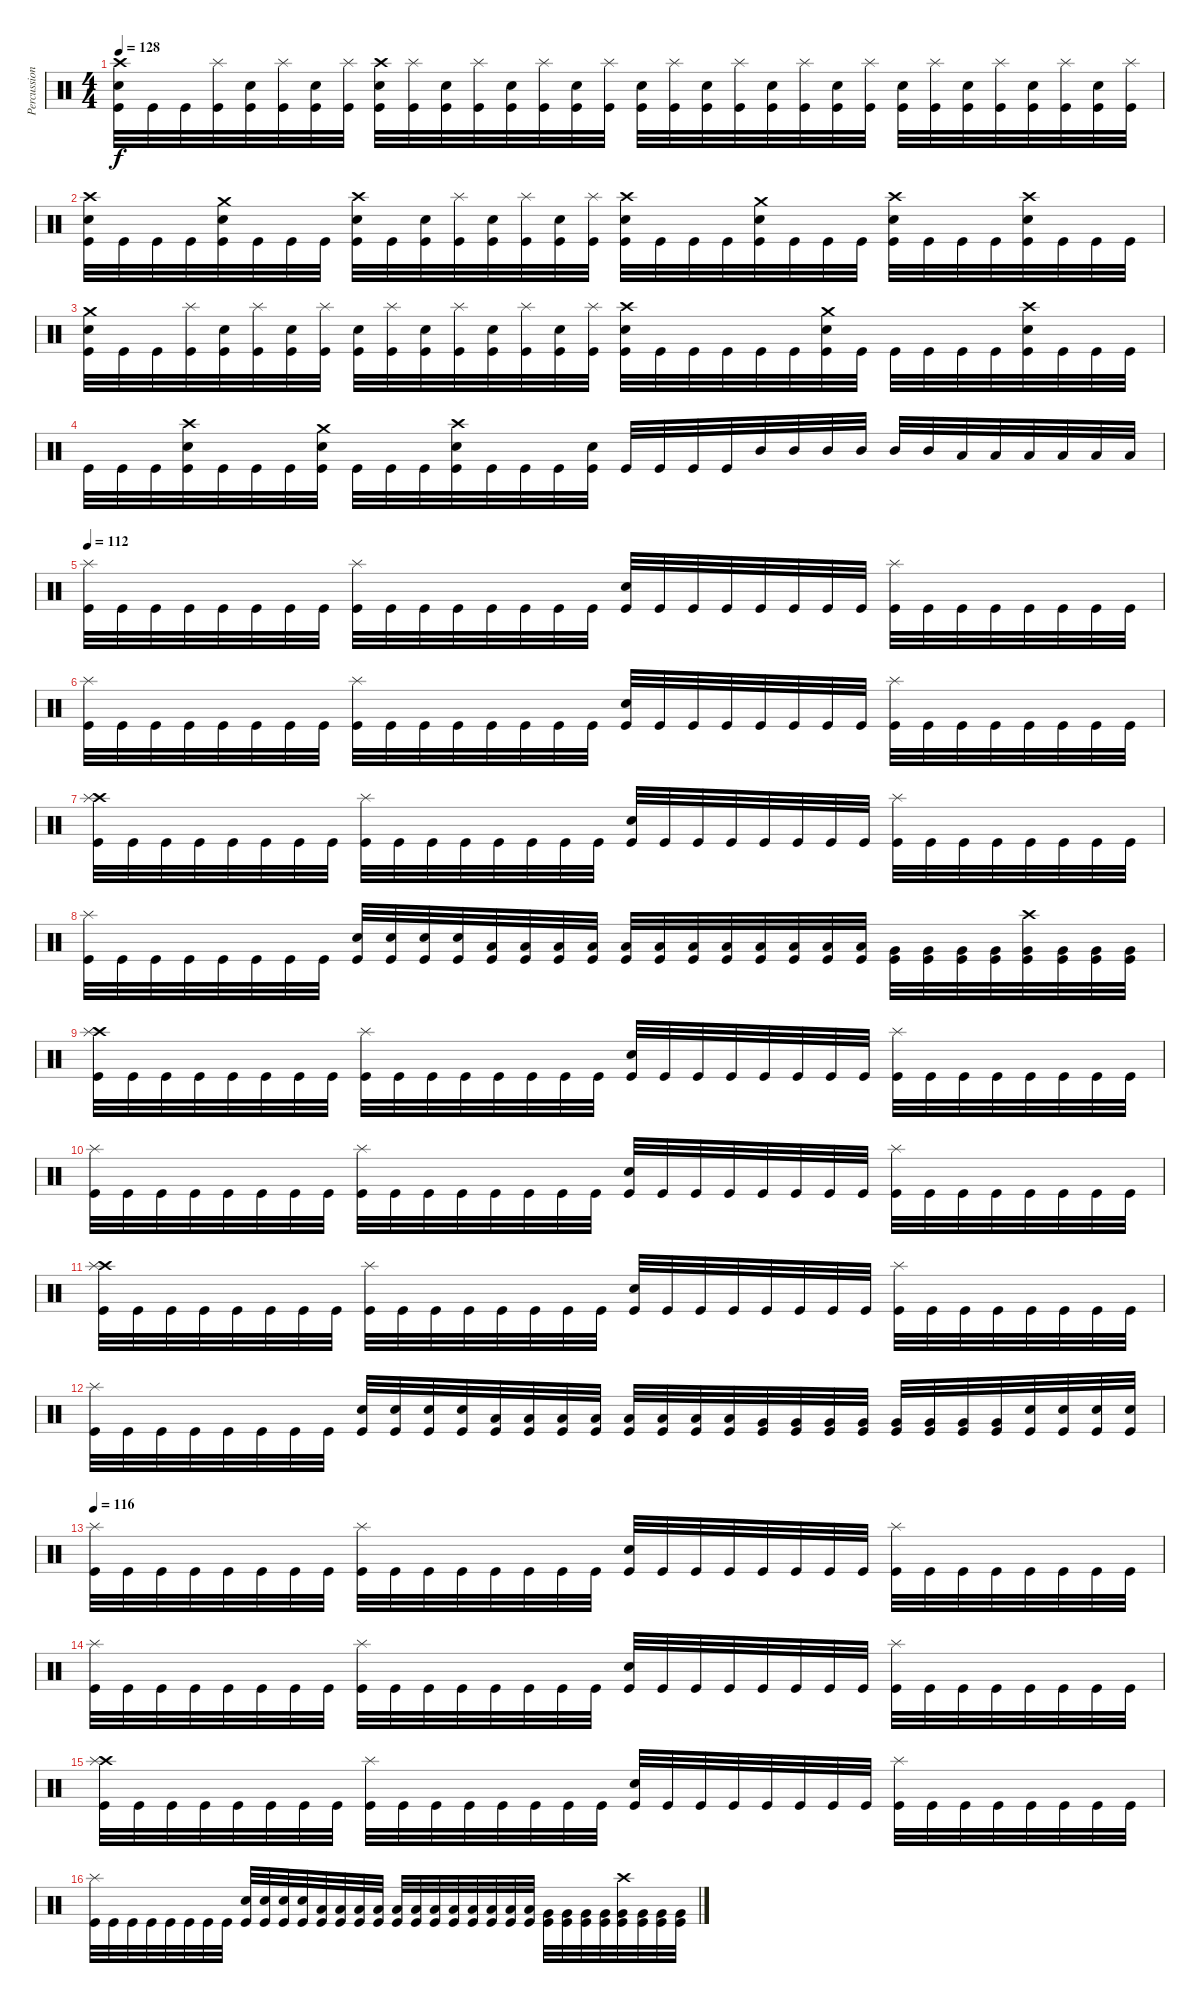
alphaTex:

\track ("Percussion" "Percussion") {instrument percussion}
\staff {score}
\articulation defaults
\ts (4 4)
\tempo 128
\clef neutral
\ks c
("Crash high (hit)" "Electric Snare (hit)" "Kick (hit)").32{dy f} "Kick (hit)".32 "Kick (hit)".32 ("Splash (hit)" "Kick (hit)").32 ("Electric Snare (hit)" "Kick (hit)").32 ("Splash (hit)" "Kick (hit)").32 ("Electric Snare (hit)" "Kick (hit)").32 ("Splash (hit)" "Kick (hit)").32 ("Crash high (hit)" "Electric Snare (hit)" "Kick (hit)").32 ("Splash (hit)" "Kick (hit)").32 ("Electric Snare (hit)" "Kick (hit)").32 ("Splash (hit)" "Kick (hit)").32 ("Electric Snare (hit)" "Kick (hit)").32 ("Splash (hit)" "Kick (hit)").32 ("Electric Snare (hit)" "Kick (hit)").32 ("Splash (hit)" "Kick (hit)").32 ("Electric Snare (hit)" "Kick (hit)").32 ("Splash (hit)" "Kick (hit)").32 ("Electric Snare (hit)" "Kick (hit)").32 ("Splash (hit)" "Kick (hit)").32 ("Electric Snare (hit)" "Kick (hit)").32 ("Splash (hit)" "Kick (hit)").32 ("Electric Snare (hit)" "Kick (hit)").32 ("Splash (hit)" "Kick (hit)").32 ("Electric Snare (hit)" "Kick (hit)").32 ("Splash (hit)" "Kick (hit)").32 ("Electric Snare (hit)" "Kick (hit)").32 ("Splash (hit)" "Kick (hit)").32 ("Electric Snare (hit)" "Kick (hit)").32 ("Splash (hit)" "Kick (hit)").32 ("Electric Snare (hit)" "Kick (hit)").32 ("Splash (hit)" "Kick (hit)").32 |
("Crash high (hit)" "Electric Snare (hit)" "Kick (hit)").32 "Kick (hit)".32 "Kick (hit)".32 "Kick (hit)".32 ("Crash medium (hit)" "Electric Snare (hit)" "Kick (hit)").32 "Kick (hit)".32 "Kick (hit)".32 "Kick (hit)".32 ("Crash high (hit)" "Electric Snare (hit)" "Kick (hit)").32 "Kick (hit)".32 ("Electric Snare (hit)" "Kick (hit)").32 ("Splash (hit)" "Kick (hit)").32 ("Electric Snare (hit)" "Kick (hit)").32 ("Splash (hit)" "Kick (hit)").32 ("Electric Snare (hit)" "Kick (hit)").32 ("Splash (hit)" "Kick (hit)").32 ("Crash high (hit)" "Electric Snare (hit)" "Kick (hit)").32 "Kick (hit)".32 "Kick (hit)".32 "Kick (hit)".32 ("Crash medium (hit)" "Electric Snare (hit)" "Kick (hit)").32 "Kick (hit)".32 "Kick (hit)".32 "Kick (hit)".32 ("Crash high (hit)" "Electric Snare (hit)" "Kick (hit)").32 "Kick (hit)".32 "Kick (hit)".32 "Kick (hit)".32 ("Crash high (hit)" "Electric Snare (hit)" "Kick (hit)").32 "Kick (hit)".32 "Kick (hit)".32 "Kick (hit)".32 |
("Crash medium (hit)" "Electric Snare (hit)" "Kick (hit)").32 "Kick (hit)".32 "Kick (hit)".32 ("Splash (hit)" "Kick (hit)").32 ("Electric Snare (hit)" "Kick (hit)").32 ("Splash (hit)" "Kick (hit)").32 ("Electric Snare (hit)" "Kick (hit)").32 ("Splash (hit)" "Kick (hit)").32 ("Electric Snare (hit)" "Kick (hit)").32 ("Splash (hit)" "Kick (hit)").32 ("Electric Snare (hit)" "Kick (hit)").32 ("Splash (hit)" "Kick (hit)").32 ("Electric Snare (hit)" "Kick (hit)").32 ("Splash (hit)" "Kick (hit)").32 ("Electric Snare (hit)" "Kick (hit)").32 ("Splash (hit)" "Kick (hit)").32 ("Crash high (hit)" "Electric Snare (hit)" "Kick (hit)").32 "Kick (hit)".32 "Kick (hit)".32 "Kick (hit)".32 "Kick (hit)".32 "Kick (hit)".32 ("Crash medium (hit)" "Electric Snare (hit)" "Kick (hit)").32 "Kick (hit)".32 "Kick (hit)".32 "Kick (hit)".32 "Kick (hit)".32 "Kick (hit)".32 ("Crash high (hit)" "Electric Snare (hit)" "Kick (hit)").32 "Kick (hit)".32 "Kick (hit)".32 "Kick (hit)".32 |
"Kick (hit)".32 "Kick (hit)".32 "Kick (hit)".32 ("Crash high (hit)" "Electric Snare (hit)" "Kick (hit)").32 "Kick (hit)".32 "Kick (hit)".32 "Kick (hit)".32 ("Crash medium (hit)" "Electric Snare (hit)" "Kick (hit)").32 "Kick (hit)".32 "Kick (hit)".32 "Kick (hit)".32 ("Crash high (hit)" "Electric Snare (hit)" "Kick (hit)").32 "Kick (hit)".32 "Kick (hit)".32 "Kick (hit)".32 ("Electric Snare (hit)" "Kick (hit)").32 "Kick (hit)".32 "Kick (hit)".32 "Kick (hit)".32 "Kick (hit)".32 "Mid Tom (hit)".32 "Mid Tom (hit)".32 "Mid Tom (hit)".32 "Mid Tom (hit)".32 "Mid Tom (hit)".32 "Mid Tom (hit)".32 "Low Tom (hit)".32 "Low Tom (hit)".32 "Low Tom (hit)".32 "Low Tom (hit)".32 "Low Tom (hit)".32 "Low Tom (hit)".32 |
\tempo 112
("Splash (hit)" "Kick (hit)").32 "Kick (hit)".32 "Kick (hit)".32 "Kick (hit)".32 "Kick (hit)".32 "Kick (hit)".32 "Kick (hit)".32 "Kick (hit)".32 ("Splash (hit)" "Kick (hit)").32 "Kick (hit)".32 "Kick (hit)".32 "Kick (hit)".32 "Kick (hit)".32 "Kick (hit)".32 "Kick (hit)".32 "Kick (hit)".32 ("Electric Snare (hit)" "Kick (hit)").32 "Kick (hit)".32 "Kick (hit)".32 "Kick (hit)".32 "Kick (hit)".32 "Kick (hit)".32 "Kick (hit)".32 "Kick (hit)".32 ("Splash (hit)" "Kick (hit)").32 "Kick (hit)".32 "Kick (hit)".32 "Kick (hit)".32 "Kick (hit)".32 "Kick (hit)".32 "Kick (hit)".32 "Kick (hit)".32 |
("Splash (hit)" "Kick (hit)").32 "Kick (hit)".32 "Kick (hit)".32 "Kick (hit)".32 "Kick (hit)".32 "Kick (hit)".32 "Kick (hit)".32 "Kick (hit)".32 ("Splash (hit)" "Kick (hit)").32 "Kick (hit)".32 "Kick (hit)".32 "Kick (hit)".32 "Kick (hit)".32 "Kick (hit)".32 "Kick (hit)".32 "Kick (hit)".32 ("Electric Snare (hit)" "Kick (hit)").32 "Kick (hit)".32 "Kick (hit)".32 "Kick (hit)".32 "Kick (hit)".32 "Kick (hit)".32 "Kick (hit)".32 "Kick (hit)".32 ("Splash (hit)" "Kick (hit)").32 "Kick (hit)".32 "Kick (hit)".32 "Kick (hit)".32 "Kick (hit)".32 "Kick (hit)".32 "Kick (hit)".32 "Kick (hit)".32 |
("Crash high (hit)" "Splash (hit)" "Kick (hit)").32 "Kick (hit)".32 "Kick (hit)".32 "Kick (hit)".32 "Kick (hit)".32 "Kick (hit)".32 "Kick (hit)".32 "Kick (hit)".32 ("Splash (hit)" "Kick (hit)").32 "Kick (hit)".32 "Kick (hit)".32 "Kick (hit)".32 "Kick (hit)".32 "Kick (hit)".32 "Kick (hit)".32 "Kick (hit)".32 ("Electric Snare (hit)" "Kick (hit)").32 "Kick (hit)".32 "Kick (hit)".32 "Kick (hit)".32 "Kick (hit)".32 "Kick (hit)".32 "Kick (hit)".32 "Kick (hit)".32 ("Splash (hit)" "Kick (hit)").32 "Kick (hit)".32 "Kick (hit)".32 "Kick (hit)".32 "Kick (hit)".32 "Kick (hit)".32 "Kick (hit)".32 "Kick (hit)".32 |
("Splash (hit)" "Kick (hit)").32 "Kick (hit)".32 "Kick (hit)".32 "Kick (hit)".32 "Kick (hit)".32 "Kick (hit)".32 "Kick (hit)".32 "Kick (hit)".32 ("Electric Snare (hit)" "Kick (hit)").32 ("Electric Snare (hit)" "Kick (hit)").32 ("Electric Snare (hit)" "Kick (hit)").32 ("Electric Snare (hit)" "Kick (hit)").32 ("Low Tom (hit)" "Kick (hit)").32 ("Low Tom (hit)" "Kick (hit)").32 ("Low Tom (hit)" "Kick (hit)").32 ("Low Tom (hit)" "Kick (hit)").32 ("Low Tom (hit)" "Kick (hit)").32 ("Low Tom (hit)" "Kick (hit)").32 ("Low Tom (hit)" "Kick (hit)").32 ("Low Tom (hit)" "Kick (hit)").32 ("Low Tom (hit)" "Kick (hit)").32 ("Low Tom (hit)" "Kick (hit)").32 ("Low Tom (hit)" "Kick (hit)").32 ("Low Tom (hit)" "Kick (hit)").32 ("Very Low Tom (hit)" "Kick (hit)").32 ("Very Low Tom (hit)" "Kick (hit)").32 ("Very Low Tom (hit)" "Kick (hit)").32 ("Very Low Tom (hit)" "Kick (hit)").32 ("Crash high (hit)" "Very Low Tom (hit)" "Kick (hit)").32 ("Very Low Tom (hit)" "Kick (hit)").32 ("Very Low Tom (hit)" "Kick (hit)").32 ("Very Low Tom (hit)" "Kick (hit)").32 |
("Crash high (hit)" "Splash (hit)" "Kick (hit)").32 "Kick (hit)".32 "Kick (hit)".32 "Kick (hit)".32 "Kick (hit)".32 "Kick (hit)".32 "Kick (hit)".32 "Kick (hit)".32 ("Splash (hit)" "Kick (hit)").32 "Kick (hit)".32 "Kick (hit)".32 "Kick (hit)".32 "Kick (hit)".32 "Kick (hit)".32 "Kick (hit)".32 "Kick (hit)".32 ("Electric Snare (hit)" "Kick (hit)").32 "Kick (hit)".32 "Kick (hit)".32 "Kick (hit)".32 "Kick (hit)".32 "Kick (hit)".32 "Kick (hit)".32 "Kick (hit)".32 ("Splash (hit)" "Kick (hit)").32 "Kick (hit)".32 "Kick (hit)".32 "Kick (hit)".32 "Kick (hit)".32 "Kick (hit)".32 "Kick (hit)".32 "Kick (hit)".32 |
("Splash (hit)" "Kick (hit)").32 "Kick (hit)".32 "Kick (hit)".32 "Kick (hit)".32 "Kick (hit)".32 "Kick (hit)".32 "Kick (hit)".32 "Kick (hit)".32 ("Splash (hit)" "Kick (hit)").32 "Kick (hit)".32 "Kick (hit)".32 "Kick (hit)".32 "Kick (hit)".32 "Kick (hit)".32 "Kick (hit)".32 "Kick (hit)".32 ("Electric Snare (hit)" "Kick (hit)").32 "Kick (hit)".32 "Kick (hit)".32 "Kick (hit)".32 "Kick (hit)".32 "Kick (hit)".32 "Kick (hit)".32 "Kick (hit)".32 ("Splash (hit)" "Kick (hit)").32 "Kick (hit)".32 "Kick (hit)".32 "Kick (hit)".32 "Kick (hit)".32 "Kick (hit)".32 "Kick (hit)".32 "Kick (hit)".32 |
("Crash high (hit)" "Splash (hit)" "Kick (hit)").32 "Kick (hit)".32 "Kick (hit)".32 "Kick (hit)".32 "Kick (hit)".32 "Kick (hit)".32 "Kick (hit)".32 "Kick (hit)".32 ("Splash (hit)" "Kick (hit)").32 "Kick (hit)".32 "Kick (hit)".32 "Kick (hit)".32 "Kick (hit)".32 "Kick (hit)".32 "Kick (hit)".32 "Kick (hit)".32 ("Electric Snare (hit)" "Kick (hit)").32 "Kick (hit)".32 "Kick (hit)".32 "Kick (hit)".32 "Kick (hit)".32 "Kick (hit)".32 "Kick (hit)".32 "Kick (hit)".32 ("Splash (hit)" "Kick (hit)").32 "Kick (hit)".32 "Kick (hit)".32 "Kick (hit)".32 "Kick (hit)".32 "Kick (hit)".32 "Kick (hit)".32 "Kick (hit)".32 |
("Splash (hit)" "Kick (hit)").32 "Kick (hit)".32 "Kick (hit)".32 "Kick (hit)".32 "Kick (hit)".32 "Kick (hit)".32 "Kick (hit)".32 "Kick (hit)".32 ("Electric Snare (hit)" "Kick (hit)").32 ("Electric Snare (hit)" "Kick (hit)").32 ("Electric Snare (hit)" "Kick (hit)").32 ("Electric Snare (hit)" "Kick (hit)").32 ("Low Tom (hit)" "Kick (hit)").32 ("Low Tom (hit)" "Kick (hit)").32 ("Low Tom (hit)" "Kick (hit)").32 ("Low Tom (hit)" "Kick (hit)").32 ("Low Tom (hit)" "Kick (hit)").32 ("Low Tom (hit)" "Kick (hit)").32 ("Low Tom (hit)" "Kick (hit)").32 ("Low Tom (hit)" "Kick (hit)").32 ("Very Low Tom (hit)" "Kick (hit)").32 ("Very Low Tom (hit)" "Kick (hit)").32 ("Very Low Tom (hit)" "Kick (hit)").32 ("Very Low Tom (hit)" "Kick (hit)").32 ("Very Low Tom (hit)" "Kick (hit)").32 ("Very Low Tom (hit)" "Kick (hit)").32 ("Very Low Tom (hit)" "Kick (hit)").32 ("Very Low Tom (hit)" "Kick (hit)").32 ("Snare (hit) 2" "Kick (hit)").32 ("Snare (hit) 2" "Kick (hit)").32 ("Snare (hit) 2" "Kick (hit)").32 ("Snare (hit) 2" "Kick (hit)").32 |
\tempo 112
\tempo 116
("Splash (hit)" "Kick (hit)").32 "Kick (hit)".32 "Kick (hit)".32 "Kick (hit)".32 "Kick (hit)".32 "Kick (hit)".32 "Kick (hit)".32 "Kick (hit)".32 ("Splash (hit)" "Kick (hit)").32 "Kick (hit)".32 "Kick (hit)".32 "Kick (hit)".32 "Kick (hit)".32 "Kick (hit)".32 "Kick (hit)".32 "Kick (hit)".32 ("Electric Snare (hit)" "Kick (hit)").32 "Kick (hit)".32 "Kick (hit)".32 "Kick (hit)".32 "Kick (hit)".32 "Kick (hit)".32 "Kick (hit)".32 "Kick (hit)".32 ("Splash (hit)" "Kick (hit)").32 "Kick (hit)".32 "Kick (hit)".32 "Kick (hit)".32 "Kick (hit)".32 "Kick (hit)".32 "Kick (hit)".32 "Kick (hit)".32 |
("Splash (hit)" "Kick (hit)").32 "Kick (hit)".32 "Kick (hit)".32 "Kick (hit)".32 "Kick (hit)".32 "Kick (hit)".32 "Kick (hit)".32 "Kick (hit)".32 ("Splash (hit)" "Kick (hit)").32 "Kick (hit)".32 "Kick (hit)".32 "Kick (hit)".32 "Kick (hit)".32 "Kick (hit)".32 "Kick (hit)".32 "Kick (hit)".32 ("Electric Snare (hit)" "Kick (hit)").32 "Kick (hit)".32 "Kick (hit)".32 "Kick (hit)".32 "Kick (hit)".32 "Kick (hit)".32 "Kick (hit)".32 "Kick (hit)".32 ("Splash (hit)" "Kick (hit)").32 "Kick (hit)".32 "Kick (hit)".32 "Kick (hit)".32 "Kick (hit)".32 "Kick (hit)".32 "Kick (hit)".32 "Kick (hit)".32 |
("Crash high (hit)" "Splash (hit)" "Kick (hit)").32 "Kick (hit)".32 "Kick (hit)".32 "Kick (hit)".32 "Kick (hit)".32 "Kick (hit)".32 "Kick (hit)".32 "Kick (hit)".32 ("Splash (hit)" "Kick (hit)").32 "Kick (hit)".32 "Kick (hit)".32 "Kick (hit)".32 "Kick (hit)".32 "Kick (hit)".32 "Kick (hit)".32 "Kick (hit)".32 ("Electric Snare (hit)" "Kick (hit)").32 "Kick (hit)".32 "Kick (hit)".32 "Kick (hit)".32 "Kick (hit)".32 "Kick (hit)".32 "Kick (hit)".32 "Kick (hit)".32 ("Splash (hit)" "Kick (hit)").32 "Kick (hit)".32 "Kick (hit)".32 "Kick (hit)".32 "Kick (hit)".32 "Kick (hit)".32 "Kick (hit)".32 "Kick (hit)".32 |
("Splash (hit)" "Kick (hit)").32 "Kick (hit)".32 "Kick (hit)".32 "Kick (hit)".32 "Kick (hit)".32 "Kick (hit)".32 "Kick (hit)".32 "Kick (hit)".32 ("Electric Snare (hit)" "Kick (hit)").32 ("Electric Snare (hit)" "Kick (hit)").32 ("Electric Snare (hit)" "Kick (hit)").32 ("Electric Snare (hit)" "Kick (hit)").32 ("Low Tom (hit)" "Kick (hit)").32 ("Low Tom (hit)" "Kick (hit)").32 ("Low Tom (hit)" "Kick (hit)").32 ("Low Tom (hit)" "Kick (hit)").32 ("Low Tom (hit)" "Kick (hit)").32 ("Low Tom (hit)" "Kick (hit)").32 ("Low Tom (hit)" "Kick (hit)").32 ("Low Tom (hit)" "Kick (hit)").32 ("Low Tom (hit)" "Kick (hit)").32 ("Low Tom (hit)" "Kick (hit)").32 ("Low Tom (hit)" "Kick (hit)").32 ("Low Tom (hit)" "Kick (hit)").32 ("Very Low Tom (hit)" "Kick (hit)").32 ("Very Low Tom (hit)" "Kick (hit)").32 ("Very Low Tom (hit)" "Kick (hit)").32 ("Very Low Tom (hit)" "Kick (hit)").32 ("Crash high (hit)" "Very Low Tom (hit)" "Kick (hit)").32 ("Very Low Tom (hit)" "Kick (hit)").32 ("Very Low Tom (hit)" "Kick (hit)").32 ("Very Low Tom (hit)" "Kick (hit)").32
